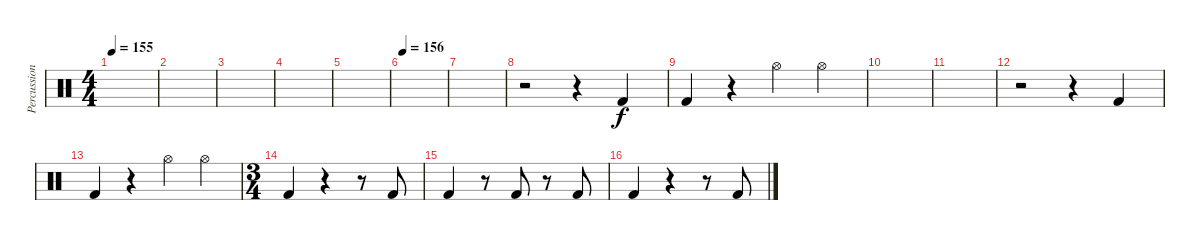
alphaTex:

\track ("Percussions" "Percussion") {instrument percussion}
\staff {score}
\articulation defaults
\ts (4 4)
\tempo 155
\clef neutral
\ks c
|
|
|
|
|
\tempo 156
|
|
r.2 r.4 "Kick (hit) 2".4 |
"Kick (hit) 2".4 r.4 "Hi-Hat (open)".4 "Hi-Hat (open)".4 |
|
|
r.2 r.4 "Kick (hit) 2".4 |
"Kick (hit) 2".4 r.4 "Hi-Hat (open)".4 "Hi-Hat (open)".4 |
\ts (3 4)
"Kick (hit) 2".4 r.4 r.8 "Kick (hit) 2".8 |
"Kick (hit) 2".4 r.8 "Kick (hit) 2".8 r.8 "Kick (hit) 2".8 |
"Kick (hit) 2".4 r.4 r.8 "Kick (hit) 2".8
